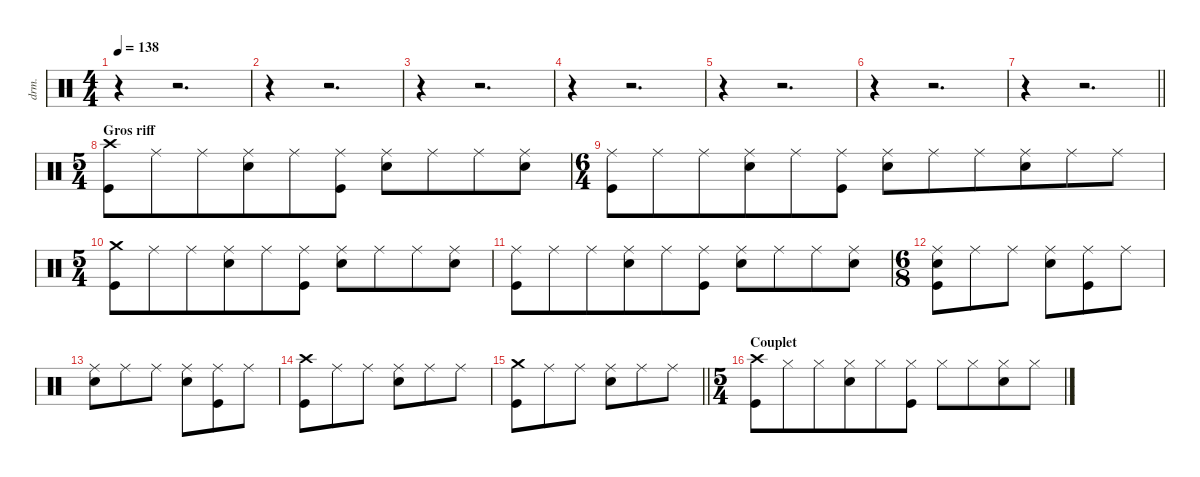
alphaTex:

\defaultSystemsLayout 4
\hideDynamics
\bracketExtendMode nobrackets
\track ("Percussions" "drm.") {instrument percussion}
\staff {score}
\articulation defaults
\ts (4 4)
\tempo 138
\clef neutral
\ks aminor
r.4{dy f} r.2{d} |
r.4 r.2{d} |
r.4 r.2{d} |
r.4 r.2{d} |
r.4 r.2{d} |
r.4 r.2{d} |
\barLineRight lightlight
r.4 r.2{d} |
\ts (5 4)
\beaming (8 6 4)
\section ("" "Gros riff")
("Crash high (hit)" "Kick (hit)").8 "Ride (middle)".8{dy mp} "Ride (middle)".8 ("Ride (middle)" "Snare (hit) 2").8{dy f} "Ride (middle)".8{dy mp} ("Ride (middle)" "Kick (hit)").8 ("Ride (middle)" "Snare (hit) 2").8{dy f} "Ride (middle)".8{dy mp} "Ride (middle)".8 ("Ride (middle)" "Snare (hit) 2").8{dy f} |
\ts (6 4)
\beaming (8 6 6)
("Ride (middle)" "Kick (hit)").8 "Ride (middle)".8{dy mp} "Ride (middle)".8 ("Ride (middle)" "Snare (hit) 2").8{dy f} "Ride (middle)".8{dy mp} ("Ride (middle)" "Kick (hit)").8 ("Ride (middle)" "Snare (hit) 2").8{dy f} "Ride (middle)".8{dy mp} "Ride (middle)".8 ("Ride (middle)" "Snare (hit) 2").8 "Ride (middle)".8{dy f} "Ride (middle)".8 |
\ts (5 4)
\beaming (8 6 4)
("Crash medium (hit)" "Kick (hit)").8 "Ride (middle)".8{dy mp} "Ride (middle)".8 ("Ride (middle)" "Snare (hit) 2").8{dy f} "Ride (middle)".8{dy mp} ("Ride (middle)" "Kick (hit)").8 ("Ride (middle)" "Snare (hit) 2").8{dy f} "Ride (middle)".8{dy mp} "Ride (middle)".8 ("Ride (middle)" "Snare (hit) 2").8{dy f} |
("Ride (middle)" "Kick (hit)").8 "Ride (middle)".8{dy mp} "Ride (middle)".8 ("Ride (middle)" "Snare (hit) 2").8{dy f} "Ride (middle)".8{dy mp} ("Ride (middle)" "Kick (hit)").8 ("Ride (middle)" "Snare (hit) 2").8{dy f} "Ride (middle)".8{dy mp} "Ride (middle)".8 ("Ride (middle)" "Snare (hit) 2").8 |
\ts (6 8)
\beaming (8 3 3)
("Ride (middle)" "Snare (hit) 2" "Kick (hit)").8{dy f} "Ride (middle)".8{dy mp} "Ride (middle)".8 ("Ride (middle)" "Snare (hit) 2").8 ("Ride (middle)" "Kick (hit)").8 "Ride (middle)".8{dy f} |
("Ride (middle)" "Snare (hit) 2").8 "Ride (middle)".8{dy mp} "Ride (middle)".8 ("Ride (middle)" "Snare (hit) 2").8{dy f} ("Ride (middle)" "Kick (hit)").8{dy mp} "Ride (middle)".8 |
("Crash high (hit)" "Kick (hit)").8{dy f} "Ride (middle)".8{dy mp} "Ride (middle)".8 ("Ride (middle)" "Snare (hit) 2").8{dy f} "Ride (middle)".8{dy mp} "Ride (middle)".8 |
\barLineRight lightlight
("Crash medium (hit)" "Kick (hit)").8{dy f} "Ride (middle)".8{dy mf} "Ride (middle)".8 ("Ride (middle)" "Snare (hit) 2").8{dy f} "Ride (middle)".8{dy mf} "Ride (middle)".8 |
\ts (5 4)
\beaming (8 6 4)
\section ("" "Couplet")
("Crash high (hit)" "Kick (hit)").8{dy f} "Hi-Hat (closed)".8 "Hi-Hat (closed)".8 ("Hi-Hat (closed)" "Snare (hit) 2").8 "Hi-Hat (closed)".8 ("Hi-Hat (closed)" "Kick (hit)").8 "Hi-Hat (closed)".8 "Hi-Hat (closed)".8 ("Hi-Hat (closed)" "Snare (hit) 2").8 "Hi-Hat (closed)".8
